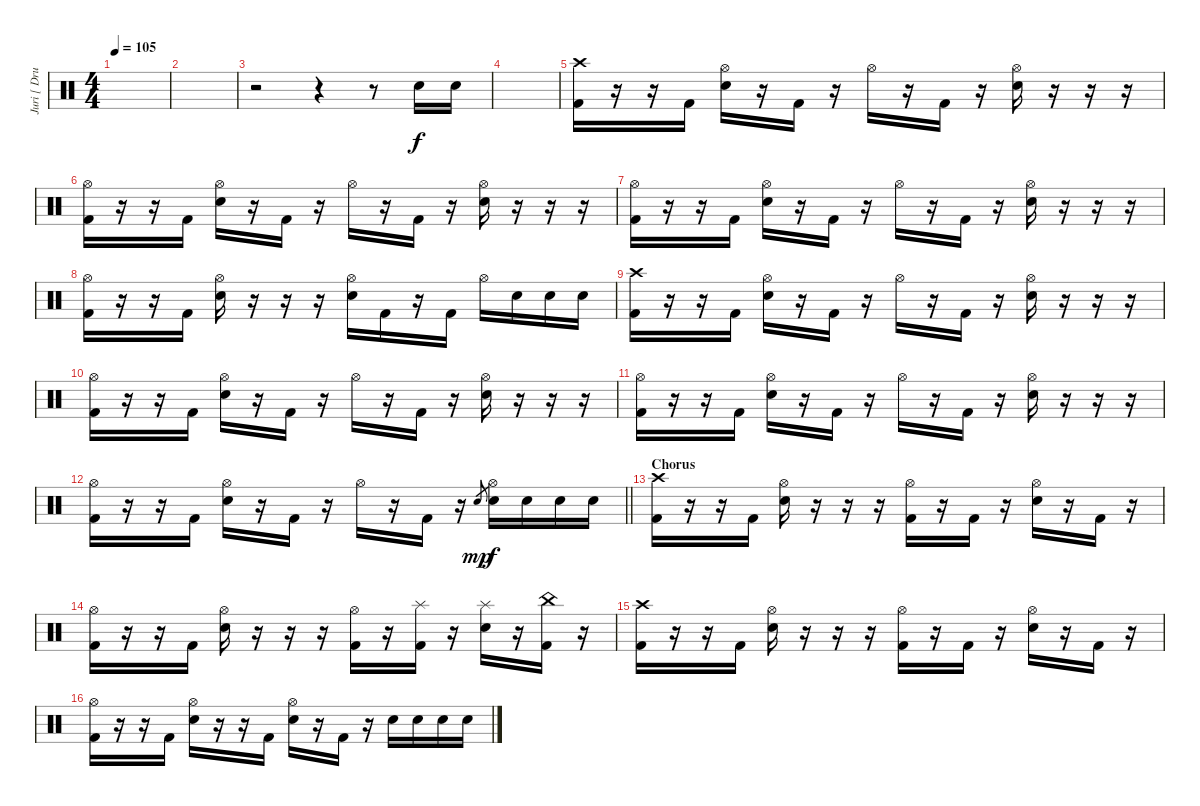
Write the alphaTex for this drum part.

\track ("Juri [ Drums]" "Juri [ Dru") {instrument percussion}
\staff {score}
\articulation defaults
\ts (4 4)
\tempo 105
\clef neutral
\ks c
|
|
r.2 r.4 r.8 "Electric Snare (hit)".16 "Electric Snare (hit)".16 |
|
("Crash high (hit)" "Kick (hit) 2").16 r.16 r.16 "Kick (hit) 2".16 ("Hi-Hat (open)" "Electric Snare (hit)").16 r.16 "Kick (hit) 2".16 r.16 "Hi-Hat (open)".16 r.16 "Kick (hit) 2".16 r.16 ("Hi-Hat (open)" "Electric Snare (hit)").16 r.16 r.16 r.16 |
("Hi-Hat (open)" "Kick (hit) 2").16 r.16 r.16 "Kick (hit) 2".16 ("Hi-Hat (open)" "Electric Snare (hit)").16 r.16 "Kick (hit) 2".16 r.16 "Hi-Hat (open)".16 r.16 "Kick (hit) 2".16 r.16 ("Hi-Hat (open)" "Electric Snare (hit)").16 r.16 r.16 r.16 |
("Hi-Hat (open)" "Kick (hit) 2").16 r.16 r.16 "Kick (hit) 2".16 ("Hi-Hat (open)" "Electric Snare (hit)").16 r.16 "Kick (hit) 2".16 r.16 "Hi-Hat (open)".16 r.16 "Kick (hit) 2".16 r.16 ("Hi-Hat (open)" "Electric Snare (hit)").16 r.16 r.16 r.16 |
("Hi-Hat (open)" "Kick (hit) 2").16 r.16 r.16 "Kick (hit) 2".16 ("Hi-Hat (open)" "Electric Snare (hit)").16 r.16 r.16 r.16 ("Hi-Hat (open)" "Electric Snare (hit)").16 "Kick (hit) 2".16 r.16 "Kick (hit) 2".16 "Hi-Hat (open)".16 "Electric Snare (hit)".16 "Electric Snare (hit)".16 "Electric Snare (hit)".16 |
("Crash high (hit)" "Kick (hit) 2").16 r.16 r.16 "Kick (hit) 2".16 ("Hi-Hat (open)" "Electric Snare (hit)").16 r.16 "Kick (hit) 2".16 r.16 "Hi-Hat (open)".16 r.16 "Kick (hit) 2".16 r.16 ("Hi-Hat (open)" "Electric Snare (hit)").16 r.16 r.16 r.16 |
("Hi-Hat (open)" "Kick (hit) 2").16 r.16 r.16 "Kick (hit) 2".16 ("Hi-Hat (open)" "Electric Snare (hit)").16 r.16 "Kick (hit) 2".16 r.16 "Hi-Hat (open)".16 r.16 "Kick (hit) 2".16 r.16 ("Hi-Hat (open)" "Electric Snare (hit)").16 r.16 r.16 r.16 |
("Hi-Hat (open)" "Kick (hit) 2").16 r.16 r.16 "Kick (hit) 2".16 ("Hi-Hat (open)" "Electric Snare (hit)").16 r.16 "Kick (hit) 2".16 r.16 "Hi-Hat (open)".16 r.16 "Kick (hit) 2".16 r.16 ("Hi-Hat (open)" "Electric Snare (hit)").16 r.16 r.16 r.16 |
\barLineRight lightlight
("Hi-Hat (open)" "Kick (hit) 2").16 r.16 r.16 "Kick (hit) 2".16 ("Hi-Hat (open)" "Electric Snare (hit)").16 r.16 "Kick (hit) 2".16 r.16 "Hi-Hat (open)".16 r.16 "Kick (hit) 2".16 r.16 "Electric Snare (hit)".8{gr dy mp} ("Hi-Hat (open)" "Electric Snare (hit)").16{dy f} "Electric Snare (hit)".16 "Electric Snare (hit)".16 "Electric Snare (hit)".16 |
\section ("" "Chorus")
("Crash high (hit)" "Kick (hit) 2").16 r.16 r.16 "Kick (hit) 2".16 ("Hi-Hat (open)" "Electric Snare (hit)").16 r.16 r.16 r.16 ("Hi-Hat (open)" "Kick (hit) 2").16 r.16 "Kick (hit) 2".16 r.16 ("Hi-Hat (open)" "Electric Snare (hit)").16 r.16 "Kick (hit) 2".16 r.16 |
("Hi-Hat (open)" "Kick (hit) 2").16 r.16 r.16 "Kick (hit) 2".16 ("Hi-Hat (open)" "Electric Snare (hit)").16 r.16 r.16 r.16 ("Hi-Hat (open)" "Kick (hit) 2").16 r.16 ("Splash (hit)" "Kick (hit) 2").16 r.16 ("Splash (hit)" "Electric Snare (hit)").16 r.16 ("China (hit)" "Kick (hit) 2").16 r.16 |
("Crash high (hit)" "Kick (hit) 2").16 r.16 r.16 "Kick (hit) 2".16 ("Hi-Hat (open)" "Electric Snare (hit)").16 r.16 r.16 r.16 ("Hi-Hat (open)" "Kick (hit) 2").16 r.16 "Kick (hit) 2".16 r.16 ("Hi-Hat (open)" "Electric Snare (hit)").16 r.16 "Kick (hit) 2".16 r.16 |
("Hi-Hat (open)" "Kick (hit) 2").16 r.16 r.16 "Kick (hit) 2".16 ("Hi-Hat (open)" "Electric Snare (hit)").16 r.16 r.16 "Kick (hit) 2".16 ("Hi-Hat (open)" "Electric Snare (hit)").16 r.16 "Kick (hit) 2".16 r.16 "Electric Snare (hit)".16 "Electric Snare (hit)".16 "Electric Snare (hit)".16 "Electric Snare (hit)".16
